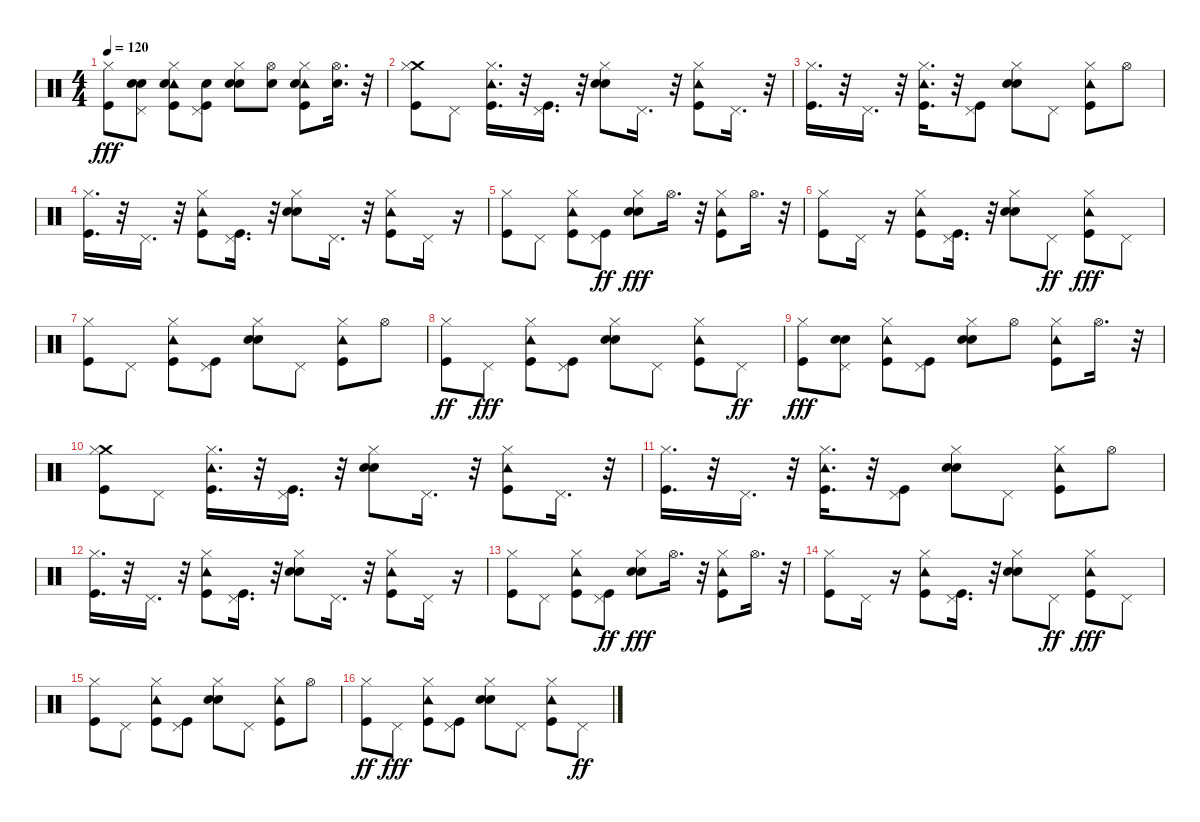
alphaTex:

\track "" {instrument percussion}
\staff {score}
\articulation defaults
\ts (4 4)
\tempo 120
\clef neutral
\ks c
("Hi-Hat (closed)" "Kick (hit)").8{dy fff} ("Pedal Hi-Hat (hit)" "Hand Clap (hit)" "Snare (hit) 2").8 ("Tambourine (hit)" "Hi-Hat (closed)" "Kick (hit)" "Snare (hit) 2").8 ("Pedal Hi-Hat (hit)" "Kick (hit)" "Snare (hit) 2").8 ("Hi-Hat (closed)" "Hand Clap (hit)" "Snare (hit) 2").8 ("Hi-Hat (open)" "Snare (hit) 2").8 ("Tambourine (hit)" "Hi-Hat (closed)" "Kick (hit)" "Snare (hit) 2").8 ("Hi-Hat (open)" "Snare (hit) 2").16{d} r.32 |
("Crash medium (hit)" "Kick (hit)" "Hi-Hat (closed)").8 "Pedal Hi-Hat (hit)".8 ("Hi-Hat (closed)" "Kick (hit)" "Tambourine (hit)").16{d} r.32 ("Pedal Hi-Hat (hit)" "Kick (hit)").16{d} r.32 ("Hand Clap (hit)" "Hi-Hat (closed)" "Snare (hit) 2").8 "Pedal Hi-Hat (hit)".16{d} r.32 ("Hi-Hat (closed)" "Kick (hit)" "Tambourine (hit)").8 "Pedal Hi-Hat (hit)".16{d} r.32 |
("Hi-Hat (closed)" "Kick (hit)").16{d} r.32 "Pedal Hi-Hat (hit)".16{d} r.32 ("Hi-Hat (closed)" "Kick (hit)" "Tambourine (hit)").16{d} r.32 ("Pedal Hi-Hat (hit)" "Kick (hit)").8 ("Hi-Hat (closed)" "Hand Clap (hit)" "Snare (hit) 2").8 "Pedal Hi-Hat (hit)".8 ("Hi-Hat (closed)" "Kick (hit)" "Tambourine (hit)").8 "Hi-Hat (open)".8 |
("Hi-Hat (closed)" "Kick (hit)").16{d} r.32 "Pedal Hi-Hat (hit)".16{d} r.32 ("Tambourine (hit)" "Kick (hit)" "Hi-Hat (closed)").8 ("Pedal Hi-Hat (hit)" "Kick (hit)").16{d} r.32 ("Hi-Hat (closed)" "Hand Clap (hit)" "Snare (hit) 2").8 "Pedal Hi-Hat (hit)".16{d} r.32 ("Tambourine (hit)" "Hi-Hat (closed)" "Kick (hit)").8 "Pedal Hi-Hat (hit)".16 r.16 |
("Kick (hit)" "Hi-Hat (closed)").8 "Pedal Hi-Hat (hit)".8 ("Tambourine (hit)" "Hi-Hat (closed)" "Kick (hit)").8 ("Kick (hit)" "Pedal Hi-Hat (hit)").8{dy ff} ("Hi-Hat (closed)" "Hand Clap (hit)" "Snare (hit) 2").8{dy fff} "Hi-Hat (open)".16{d} r.32 ("Hi-Hat (closed)" "Kick (hit)" "Tambourine (hit)").8 "Hi-Hat (open)".16{d} r.32 |
("Kick (hit)" "Hi-Hat (closed)").8 "Pedal Hi-Hat (hit)".16 r.16 ("Kick (hit)" "Hi-Hat (closed)" "Tambourine (hit)").8 ("Kick (hit)" "Pedal Hi-Hat (hit)").16{d} r.32 ("Hand Clap (hit)" "Hi-Hat (closed)" "Snare (hit) 2").8 "Pedal Hi-Hat (hit)".8{dy ff} ("Hi-Hat (closed)" "Kick (hit)" "Tambourine (hit)").8{dy fff} "Pedal Hi-Hat (hit)".8 |
("Kick (hit)" "Hi-Hat (closed)").8 "Pedal Hi-Hat (hit)".8 ("Tambourine (hit)" "Hi-Hat (closed)" "Kick (hit)").8 ("Kick (hit)" "Pedal Hi-Hat (hit)").8 ("Hi-Hat (closed)" "Hand Clap (hit)" "Snare (hit) 2").8 "Pedal Hi-Hat (hit)".8 ("Tambourine (hit)" "Hi-Hat (closed)" "Kick (hit)").8 "Hi-Hat (open)".8 |
("Kick (hit)" "Hi-Hat (closed)").8{dy ff} "Pedal Hi-Hat (hit)".8{dy fff} ("Kick (hit)" "Hi-Hat (closed)" "Tambourine (hit)").8 ("Kick (hit)" "Pedal Hi-Hat (hit)").8 ("Hand Clap (hit)" "Hi-Hat (closed)" "Snare (hit) 2").8 "Pedal Hi-Hat (hit)".8 ("Tambourine (hit)" "Kick (hit)" "Hi-Hat (closed)").8 "Pedal Hi-Hat (hit)".8{dy ff} |
("Hi-Hat (closed)" "Kick (hit)").8{dy fff} ("Pedal Hi-Hat (hit)" "Hand Clap (hit)" "Snare (hit) 2").8 ("Tambourine (hit)" "Hi-Hat (closed)" "Kick (hit)").8 ("Pedal Hi-Hat (hit)" "Kick (hit)").8 ("Hi-Hat (closed)" "Hand Clap (hit)" "Snare (hit) 2").8 "Hi-Hat (open)".8 ("Tambourine (hit)" "Hi-Hat (closed)" "Kick (hit)").8 "Hi-Hat (open)".16{d} r.32 |
("Crash medium (hit)" "Kick (hit)" "Hi-Hat (closed)").8 "Pedal Hi-Hat (hit)".8 ("Hi-Hat (closed)" "Kick (hit)" "Tambourine (hit)").16{d} r.32 ("Pedal Hi-Hat (hit)" "Kick (hit)").16{d} r.32 ("Hand Clap (hit)" "Hi-Hat (closed)" "Snare (hit) 2").8 "Pedal Hi-Hat (hit)".16{d} r.32 ("Hi-Hat (closed)" "Kick (hit)" "Tambourine (hit)").8 "Pedal Hi-Hat (hit)".16{d} r.32 |
("Hi-Hat (closed)" "Kick (hit)").16{d} r.32 "Pedal Hi-Hat (hit)".16{d} r.32 ("Hi-Hat (closed)" "Kick (hit)" "Tambourine (hit)").16{d} r.32 ("Pedal Hi-Hat (hit)" "Kick (hit)").8 ("Hi-Hat (closed)" "Hand Clap (hit)" "Snare (hit) 2").8 "Pedal Hi-Hat (hit)".8 ("Hi-Hat (closed)" "Kick (hit)" "Tambourine (hit)").8 "Hi-Hat (open)".8 |
("Hi-Hat (closed)" "Kick (hit)").16{d} r.32 "Pedal Hi-Hat (hit)".16{d} r.32 ("Tambourine (hit)" "Kick (hit)" "Hi-Hat (closed)").8 ("Pedal Hi-Hat (hit)" "Kick (hit)").16{d} r.32 ("Hi-Hat (closed)" "Hand Clap (hit)" "Snare (hit) 2").8 "Pedal Hi-Hat (hit)".16{d} r.32 ("Tambourine (hit)" "Hi-Hat (closed)" "Kick (hit)").8 "Pedal Hi-Hat (hit)".16 r.16 |
("Kick (hit)" "Hi-Hat (closed)").8 "Pedal Hi-Hat (hit)".8 ("Tambourine (hit)" "Hi-Hat (closed)" "Kick (hit)").8 ("Kick (hit)" "Pedal Hi-Hat (hit)").8{dy ff} ("Hi-Hat (closed)" "Hand Clap (hit)" "Snare (hit) 2").8{dy fff} "Hi-Hat (open)".16{d} r.32 ("Hi-Hat (closed)" "Kick (hit)" "Tambourine (hit)").8 "Hi-Hat (open)".16{d} r.32 |
("Kick (hit)" "Hi-Hat (closed)").8 "Pedal Hi-Hat (hit)".16 r.16 ("Kick (hit)" "Hi-Hat (closed)" "Tambourine (hit)").8 ("Kick (hit)" "Pedal Hi-Hat (hit)").16{d} r.32 ("Hand Clap (hit)" "Hi-Hat (closed)" "Snare (hit) 2").8 "Pedal Hi-Hat (hit)".8{dy ff} ("Hi-Hat (closed)" "Kick (hit)" "Tambourine (hit)").8{dy fff} "Pedal Hi-Hat (hit)".8 |
("Kick (hit)" "Hi-Hat (closed)").8 "Pedal Hi-Hat (hit)".8 ("Tambourine (hit)" "Hi-Hat (closed)" "Kick (hit)").8 ("Kick (hit)" "Pedal Hi-Hat (hit)").8 ("Hi-Hat (closed)" "Hand Clap (hit)" "Snare (hit) 2").8 "Pedal Hi-Hat (hit)".8 ("Tambourine (hit)" "Hi-Hat (closed)" "Kick (hit)").8 "Hi-Hat (open)".8 |
("Kick (hit)" "Hi-Hat (closed)").8{dy ff} "Pedal Hi-Hat (hit)".8{dy fff} ("Kick (hit)" "Hi-Hat (closed)" "Tambourine (hit)").8 ("Kick (hit)" "Pedal Hi-Hat (hit)").8 ("Hand Clap (hit)" "Hi-Hat (closed)" "Snare (hit) 2").8 "Pedal Hi-Hat (hit)".8 ("Tambourine (hit)" "Kick (hit)" "Hi-Hat (closed)").8 "Pedal Hi-Hat (hit)".8{dy ff}
